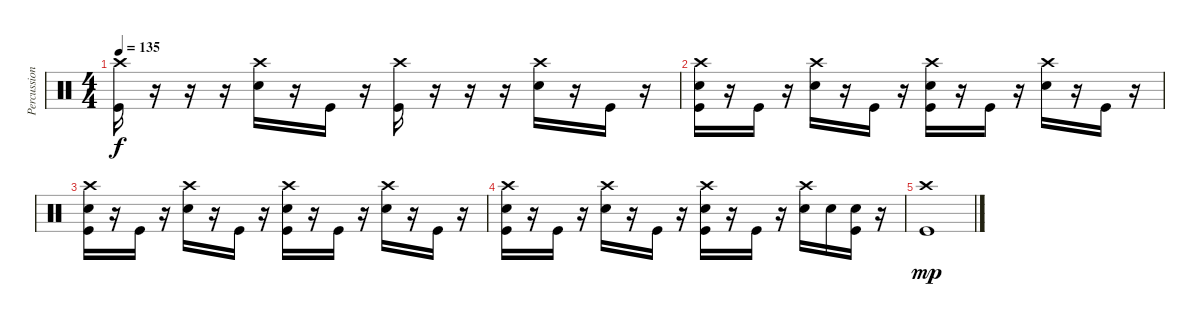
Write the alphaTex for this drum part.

\track ("Percussion" "Percussion") {instrument percussion}
\staff {score}
\articulation defaults
\ts (4 4)
\tempo 135
\clef neutral
\ks c
("Crash high (hit)" "Kick (hit)").16{dy f} r.16 r.16 r.16 ("Crash high (hit)" "Snare (hit) 2").16 r.16 "Kick (hit)".16 r.16 ("Crash high (hit)" "Kick (hit)").16 r.16 r.16 r.16 ("Crash high (hit)" "Snare (hit) 2").16 r.16 "Kick (hit)".16 r.16 |
("Crash high (hit)" "Snare (hit) 2" "Kick (hit)").16 r.16 "Kick (hit)".16 r.16 ("Crash high (hit)" "Snare (hit) 2").16 r.16 "Kick (hit)".16 r.16 ("Crash high (hit)" "Snare (hit) 2" "Kick (hit)").16 r.16 "Kick (hit)".16 r.16 ("Crash high (hit)" "Snare (hit) 2").16 r.16 "Kick (hit)".16 r.16 |
("Crash high (hit)" "Snare (hit) 2" "Kick (hit)").16 r.16 "Kick (hit)".16 r.16 ("Crash high (hit)" "Snare (hit) 2").16 r.16 "Kick (hit)".16 r.16 ("Crash high (hit)" "Snare (hit) 2" "Kick (hit)").16 r.16 "Kick (hit)".16 r.16 ("Crash high (hit)" "Snare (hit) 2").16 r.16 "Kick (hit)".16 r.16 |
("Crash high (hit)" "Snare (hit) 2" "Kick (hit)").16 r.16 "Kick (hit)".16 r.16 ("Crash high (hit)" "Snare (hit) 2").16 r.16 "Kick (hit)".16 r.16 ("Crash high (hit)" "Snare (hit) 2" "Kick (hit)").16 r.16 "Kick (hit)".16 r.16 ("Crash high (hit)" "Snare (hit) 2").16 "Snare (hit) 2".16 ("Snare (hit) 2" "Kick (hit)").16 r.16 |
("Crash high (hit)" "Kick (hit)").1{dy mp}
